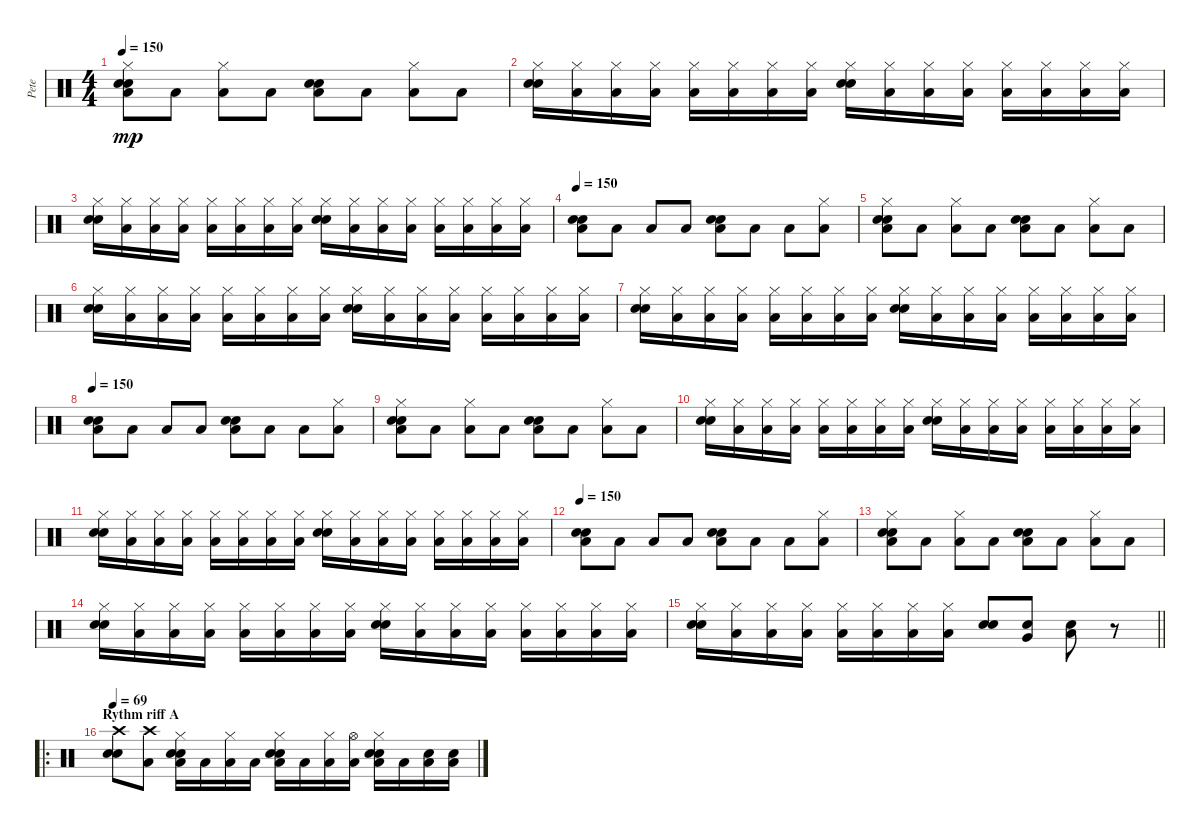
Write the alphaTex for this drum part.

\track ("Pete" "Pete") {instrument percussion}
\staff {score}
\articulation defaults
\ts (4 4)
\tempo 150
\clef neutral
\ks c
("Electric Snare (hit)" "Hi-Hat (closed)" "Low Floor Tom (hit)" "Electric Snare (hit)").8{dy mp} "Low Floor Tom (hit)".8 ("Hi-Hat (closed)" "Low Floor Tom (hit)").8 "Low Floor Tom (hit)".8 ("Electric Snare (hit)" "Low Floor Tom (hit)" "Electric Snare (hit)").8 "Low Floor Tom (hit)".8 ("Hi-Hat (closed)" "Low Floor Tom (hit)").8 "Low Floor Tom (hit)".8 |
("Electric Snare (hit)" "Hi-Hat (closed)" "Electric Snare (hit)").16 ("Hi-Hat (closed)" "Low Floor Tom (hit)").16 ("Hi-Hat (closed)" "Low Floor Tom (hit)").16 ("Hi-Hat (closed)" "Low Floor Tom (hit)").16 ("Hi-Hat (closed)" "Low Floor Tom (hit)").16 ("Hi-Hat (closed)" "Low Floor Tom (hit)").16 ("Hi-Hat (closed)" "Low Floor Tom (hit)").16 ("Hi-Hat (closed)" "Low Floor Tom (hit)").16 ("Electric Snare (hit)" "Hi-Hat (closed)" "Electric Snare (hit)").16 ("Hi-Hat (closed)" "Low Floor Tom (hit)").16 ("Hi-Hat (closed)" "Low Floor Tom (hit)").16 ("Hi-Hat (closed)" "Low Floor Tom (hit)").16 ("Hi-Hat (closed)" "Low Floor Tom (hit)").16 ("Hi-Hat (closed)" "Low Floor Tom (hit)").16 ("Hi-Hat (closed)" "Low Floor Tom (hit)").16 ("Hi-Hat (closed)" "Low Floor Tom (hit)").16 |
("Electric Snare (hit)" "Hi-Hat (closed)" "Electric Snare (hit)").16 ("Hi-Hat (closed)" "Low Floor Tom (hit)").16 ("Hi-Hat (closed)" "Low Floor Tom (hit)").16 ("Hi-Hat (closed)" "Low Floor Tom (hit)").16 ("Hi-Hat (closed)" "Low Floor Tom (hit)").16 ("Hi-Hat (closed)" "Low Floor Tom (hit)").16 ("Hi-Hat (closed)" "Low Floor Tom (hit)").16 ("Hi-Hat (closed)" "Low Floor Tom (hit)").16 ("Electric Snare (hit)" "Hi-Hat (closed)" "Electric Snare (hit)").16 ("Hi-Hat (closed)" "Low Floor Tom (hit)").16 ("Hi-Hat (closed)" "Low Floor Tom (hit)").16 ("Hi-Hat (closed)" "Low Floor Tom (hit)").16 ("Hi-Hat (closed)" "Low Floor Tom (hit)").16 ("Hi-Hat (closed)" "Low Floor Tom (hit)").16 ("Hi-Hat (closed)" "Low Floor Tom (hit)").16 ("Hi-Hat (closed)" "Low Floor Tom (hit)").16 |
\tempo 150
("Electric Snare (hit)" "Low Floor Tom (hit)" "Electric Snare (hit)").8 "Low Floor Tom (hit)".8 "Low Floor Tom (hit)".8 "Low Floor Tom (hit)".8 ("Electric Snare (hit)" "Low Floor Tom (hit)" "Electric Snare (hit)").8 "Low Floor Tom (hit)".8 "Low Floor Tom (hit)".8 ("Hi-Hat (closed)" "Low Floor Tom (hit)").8 |
("Electric Snare (hit)" "Hi-Hat (closed)" "Low Floor Tom (hit)" "Electric Snare (hit)").8 "Low Floor Tom (hit)".8 ("Hi-Hat (closed)" "Low Floor Tom (hit)").8 "Low Floor Tom (hit)".8 ("Electric Snare (hit)" "Low Floor Tom (hit)" "Electric Snare (hit)").8 "Low Floor Tom (hit)".8 ("Hi-Hat (closed)" "Low Floor Tom (hit)").8 "Low Floor Tom (hit)".8 |
("Electric Snare (hit)" "Hi-Hat (closed)" "Electric Snare (hit)").16 ("Hi-Hat (closed)" "Low Floor Tom (hit)").16 ("Hi-Hat (closed)" "Low Floor Tom (hit)").16 ("Hi-Hat (closed)" "Low Floor Tom (hit)").16 ("Hi-Hat (closed)" "Low Floor Tom (hit)").16 ("Hi-Hat (closed)" "Low Floor Tom (hit)").16 ("Hi-Hat (closed)" "Low Floor Tom (hit)").16 ("Hi-Hat (closed)" "Low Floor Tom (hit)").16 ("Electric Snare (hit)" "Hi-Hat (closed)" "Electric Snare (hit)").16 ("Hi-Hat (closed)" "Low Floor Tom (hit)").16 ("Hi-Hat (closed)" "Low Floor Tom (hit)").16 ("Hi-Hat (closed)" "Low Floor Tom (hit)").16 ("Hi-Hat (closed)" "Low Floor Tom (hit)").16 ("Hi-Hat (closed)" "Low Floor Tom (hit)").16 ("Hi-Hat (closed)" "Low Floor Tom (hit)").16 ("Hi-Hat (closed)" "Low Floor Tom (hit)").16 |
("Electric Snare (hit)" "Hi-Hat (closed)" "Electric Snare (hit)").16 ("Hi-Hat (closed)" "Low Floor Tom (hit)").16 ("Hi-Hat (closed)" "Low Floor Tom (hit)").16 ("Hi-Hat (closed)" "Low Floor Tom (hit)").16 ("Hi-Hat (closed)" "Low Floor Tom (hit)").16 ("Hi-Hat (closed)" "Low Floor Tom (hit)").16 ("Hi-Hat (closed)" "Low Floor Tom (hit)").16 ("Hi-Hat (closed)" "Low Floor Tom (hit)").16 ("Electric Snare (hit)" "Hi-Hat (closed)" "Electric Snare (hit)").16 ("Hi-Hat (closed)" "Low Floor Tom (hit)").16 ("Hi-Hat (closed)" "Low Floor Tom (hit)").16 ("Hi-Hat (closed)" "Low Floor Tom (hit)").16 ("Hi-Hat (closed)" "Low Floor Tom (hit)").16 ("Hi-Hat (closed)" "Low Floor Tom (hit)").16 ("Hi-Hat (closed)" "Low Floor Tom (hit)").16 ("Hi-Hat (closed)" "Low Floor Tom (hit)").16 |
\tempo 150
("Electric Snare (hit)" "Low Floor Tom (hit)" "Electric Snare (hit)").8 "Low Floor Tom (hit)".8 "Low Floor Tom (hit)".8 "Low Floor Tom (hit)".8 ("Electric Snare (hit)" "Low Floor Tom (hit)" "Electric Snare (hit)").8 "Low Floor Tom (hit)".8 "Low Floor Tom (hit)".8 ("Hi-Hat (closed)" "Low Floor Tom (hit)").8 |
("Electric Snare (hit)" "Hi-Hat (closed)" "Low Floor Tom (hit)" "Electric Snare (hit)").8 "Low Floor Tom (hit)".8 ("Hi-Hat (closed)" "Low Floor Tom (hit)").8 "Low Floor Tom (hit)".8 ("Electric Snare (hit)" "Low Floor Tom (hit)" "Electric Snare (hit)").8 "Low Floor Tom (hit)".8 ("Hi-Hat (closed)" "Low Floor Tom (hit)").8 "Low Floor Tom (hit)".8 |
("Electric Snare (hit)" "Hi-Hat (closed)" "Electric Snare (hit)").16 ("Hi-Hat (closed)" "Low Floor Tom (hit)").16 ("Hi-Hat (closed)" "Low Floor Tom (hit)").16 ("Hi-Hat (closed)" "Low Floor Tom (hit)").16 ("Hi-Hat (closed)" "Low Floor Tom (hit)").16 ("Hi-Hat (closed)" "Low Floor Tom (hit)").16 ("Hi-Hat (closed)" "Low Floor Tom (hit)").16 ("Hi-Hat (closed)" "Low Floor Tom (hit)").16 ("Electric Snare (hit)" "Hi-Hat (closed)" "Electric Snare (hit)").16 ("Hi-Hat (closed)" "Low Floor Tom (hit)").16 ("Hi-Hat (closed)" "Low Floor Tom (hit)").16 ("Hi-Hat (closed)" "Low Floor Tom (hit)").16 ("Hi-Hat (closed)" "Low Floor Tom (hit)").16 ("Hi-Hat (closed)" "Low Floor Tom (hit)").16 ("Hi-Hat (closed)" "Low Floor Tom (hit)").16 ("Hi-Hat (closed)" "Low Floor Tom (hit)").16 |
("Electric Snare (hit)" "Hi-Hat (closed)" "Electric Snare (hit)").16 ("Hi-Hat (closed)" "Low Floor Tom (hit)").16 ("Hi-Hat (closed)" "Low Floor Tom (hit)").16 ("Hi-Hat (closed)" "Low Floor Tom (hit)").16 ("Hi-Hat (closed)" "Low Floor Tom (hit)").16 ("Hi-Hat (closed)" "Low Floor Tom (hit)").16 ("Hi-Hat (closed)" "Low Floor Tom (hit)").16 ("Hi-Hat (closed)" "Low Floor Tom (hit)").16 ("Electric Snare (hit)" "Hi-Hat (closed)" "Electric Snare (hit)").16 ("Hi-Hat (closed)" "Low Floor Tom (hit)").16 ("Hi-Hat (closed)" "Low Floor Tom (hit)").16 ("Hi-Hat (closed)" "Low Floor Tom (hit)").16 ("Hi-Hat (closed)" "Low Floor Tom (hit)").16 ("Hi-Hat (closed)" "Low Floor Tom (hit)").16 ("Hi-Hat (closed)" "Low Floor Tom (hit)").16 ("Hi-Hat (closed)" "Low Floor Tom (hit)").16 |
\tempo 150
("Electric Snare (hit)" "Low Floor Tom (hit)" "Electric Snare (hit)").8 "Low Floor Tom (hit)".8 "Low Floor Tom (hit)".8 "Low Floor Tom (hit)".8 ("Electric Snare (hit)" "Low Floor Tom (hit)" "Electric Snare (hit)").8 "Low Floor Tom (hit)".8 "Low Floor Tom (hit)".8 ("Hi-Hat (closed)" "Low Floor Tom (hit)").8 |
("Electric Snare (hit)" "Hi-Hat (closed)" "Low Floor Tom (hit)" "Electric Snare (hit)").8 "Low Floor Tom (hit)".8 ("Hi-Hat (closed)" "Low Floor Tom (hit)").8 "Low Floor Tom (hit)".8 ("Electric Snare (hit)" "Low Floor Tom (hit)" "Electric Snare (hit)").8 "Low Floor Tom (hit)".8 ("Hi-Hat (closed)" "Low Floor Tom (hit)").8 "Low Floor Tom (hit)".8 |
("Electric Snare (hit)" "Hi-Hat (closed)" "Electric Snare (hit)").16 ("Hi-Hat (closed)" "Low Floor Tom (hit)").16 ("Hi-Hat (closed)" "Low Floor Tom (hit)").16 ("Hi-Hat (closed)" "Low Floor Tom (hit)").16 ("Hi-Hat (closed)" "Low Floor Tom (hit)").16 ("Hi-Hat (closed)" "Low Floor Tom (hit)").16 ("Hi-Hat (closed)" "Low Floor Tom (hit)").16 ("Hi-Hat (closed)" "Low Floor Tom (hit)").16 ("Electric Snare (hit)" "Hi-Hat (closed)" "Electric Snare (hit)").16 ("Hi-Hat (closed)" "Low Floor Tom (hit)").16 ("Hi-Hat (closed)" "Low Floor Tom (hit)").16 ("Hi-Hat (closed)" "Low Floor Tom (hit)").16 ("Hi-Hat (closed)" "Low Floor Tom (hit)").16 ("Hi-Hat (closed)" "Low Floor Tom (hit)").16 ("Hi-Hat (closed)" "Low Floor Tom (hit)").16 ("Hi-Hat (closed)" "Low Floor Tom (hit)").16 |
\barLineRight lightlight
("Electric Snare (hit)" "Hi-Hat (closed)" "Electric Snare (hit)").16 ("Hi-Hat (closed)" "Low Floor Tom (hit)").16 ("Hi-Hat (closed)" "Low Floor Tom (hit)").16 ("Hi-Hat (closed)" "Low Floor Tom (hit)").16 ("Hi-Hat (closed)" "Low Floor Tom (hit)").16 ("Hi-Hat (closed)" "Low Floor Tom (hit)").16 ("Hi-Hat (closed)" "Low Floor Tom (hit)").16 ("Hi-Hat (closed)" "Low Floor Tom (hit)").16 ("Electric Snare (hit)" "Electric Snare (hit)").8 ("Very Low Tom (hit)" "Electric Snare (hit)").8 ("Low Floor Tom (hit)" "Electric Snare (hit)").8 r.8 |
\ro
\section ("" "Rythm riff A")
\tempo 69
("Electric Snare (hit)" "Crash high (hit)" "Electric Snare (hit)").8 ("Crash high (hit)" "Low Floor Tom (hit)").8 ("Electric Snare (hit)" "Hi-Hat (closed)" "Low Floor Tom (hit)" "Electric Snare (hit)").16 "Low Floor Tom (hit)".16 ("Hi-Hat (closed)" "Low Floor Tom (hit)").16 "Low Floor Tom (hit)".16 ("Electric Snare (hit)" "Hi-Hat (closed)" "Low Floor Tom (hit)" "Electric Snare (hit)").16 "Low Floor Tom (hit)".16 ("Hi-Hat (closed)" "Low Floor Tom (hit)").16 ("Hi-Hat (open)" "Low Floor Tom (hit)").16 ("Electric Snare (hit)" "Hi-Hat (closed)" "Low Floor Tom (hit)" "Electric Snare (hit)").16 "Low Floor Tom (hit)".16 ("Electric Snare (hit)" "Low Floor Tom (hit)").16 ("Electric Snare (hit)" "Low Floor Tom (hit)").16
